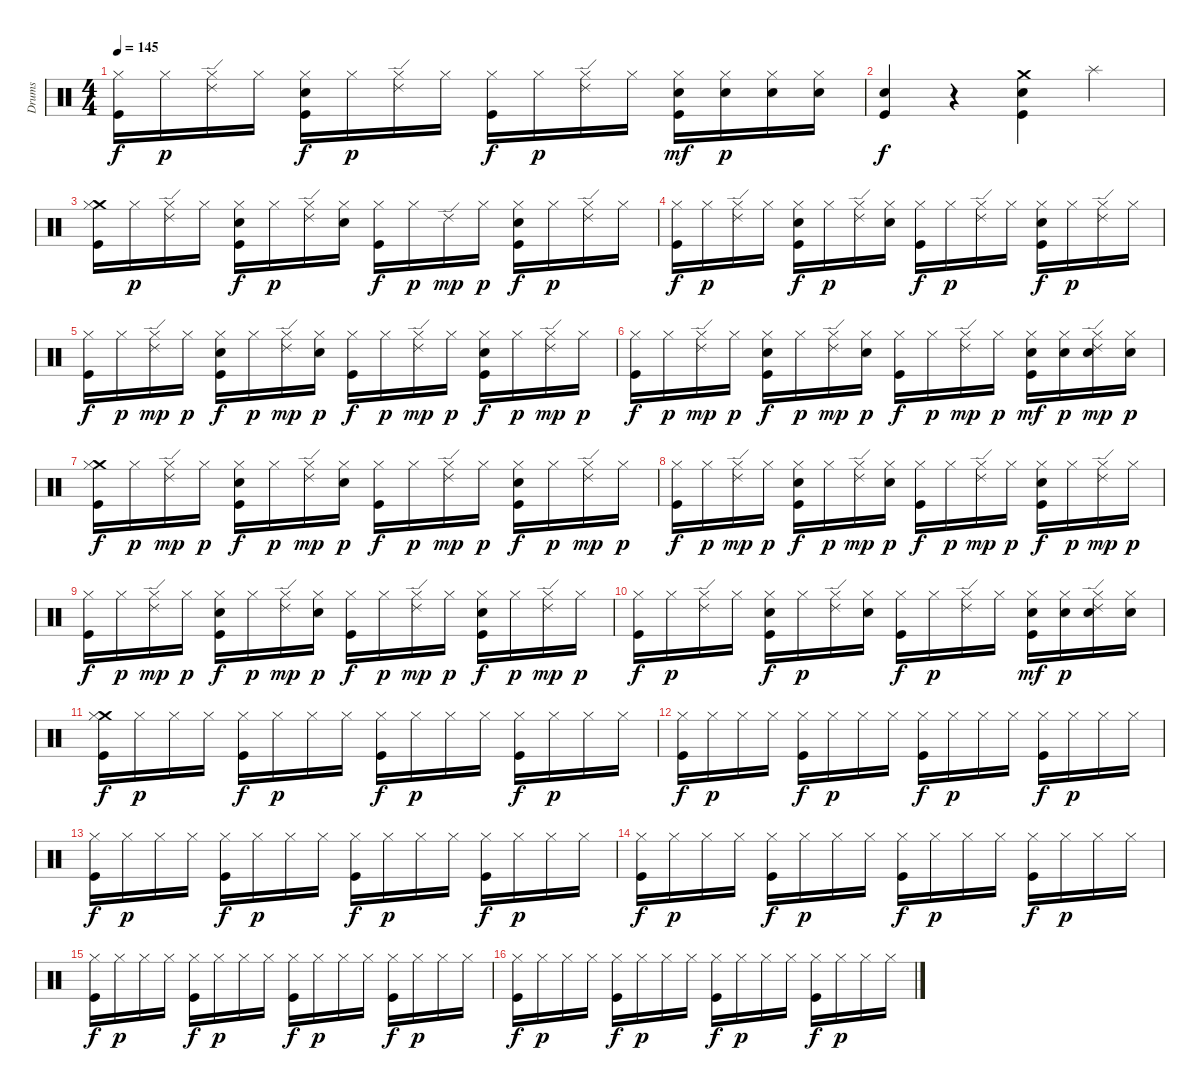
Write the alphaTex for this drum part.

\track ("Drums" "Drums") {instrument percussion}
\staff {score}
\articulation defaults
\ts (4 4)
\tempo 145
\clef neutral
\ks c
("Kick (hit)" "Hi-Hat (closed)").16{dy f} "Hi-Hat (closed)".16{dy p} ("Ride (edge) 2" "Hi-Hat (closed)").16 "Hi-Hat (closed)".16 ("Electric Snare (hit)" "Kick (hit)" "Hi-Hat (closed)").16{dy f} "Hi-Hat (closed)".16{dy p} ("Ride (edge) 2" "Hi-Hat (closed)").16 "Hi-Hat (closed)".16 ("Kick (hit)" "Hi-Hat (closed)").16{dy f} "Hi-Hat (closed)".16{dy p} ("Ride (edge) 2" "Hi-Hat (closed)").16 "Hi-Hat (closed)".16 ("Electric Snare (hit)" "Kick (hit)" "Hi-Hat (closed)").16{dy mf} ("Electric Snare (hit)" "Hi-Hat (closed)").16{dy p} ("Electric Snare (hit)" "Hi-Hat (closed)").16 ("Electric Snare (hit)" "Hi-Hat (closed)").16 |
("Electric Snare (hit)" "Kick (hit)").4{dy f} r.4 ("Crash medium (hit)" "Kick (hit)" "Electric Snare (hit)").4 "Splash (hit)".4 |
("Crash medium (hit)" "Kick (hit)" "Hi-Hat (closed)").16 "Hi-Hat (closed)".16{dy p} ("Ride (edge) 2" "Hi-Hat (closed)").16 "Hi-Hat (closed)".16 ("Electric Snare (hit)" "Kick (hit)" "Hi-Hat (closed)").16{dy f} "Hi-Hat (closed)".16{dy p} ("Ride (edge) 2" "Hi-Hat (closed)").16 ("Electric Snare (hit)" "Hi-Hat (closed)").16 ("Kick (hit)" "Hi-Hat (closed)").16{dy f} "Hi-Hat (closed)".16{dy p} "Ride (edge) 2".16{dy mp} "Hi-Hat (closed)".16{dy p} ("Electric Snare (hit)" "Kick (hit)" "Hi-Hat (closed)").16{dy f} "Hi-Hat (closed)".16{dy p} ("Ride (edge) 2" "Hi-Hat (closed)").16 "Hi-Hat (closed)".16 |
("Kick (hit)" "Hi-Hat (closed)").16{dy f} "Hi-Hat (closed)".16{dy p} ("Ride (edge) 2" "Hi-Hat (closed)").16 "Hi-Hat (closed)".16 ("Electric Snare (hit)" "Kick (hit)" "Hi-Hat (closed)").16{dy f} "Hi-Hat (closed)".16{dy p} ("Ride (edge) 2" "Hi-Hat (closed)").16 ("Electric Snare (hit)" "Hi-Hat (closed)").16 ("Kick (hit)" "Hi-Hat (closed)").16{dy f} "Hi-Hat (closed)".16{dy p} ("Ride (edge) 2" "Hi-Hat (closed)").16 "Hi-Hat (closed)".16 ("Electric Snare (hit)" "Kick (hit)" "Hi-Hat (closed)").16{dy f} "Hi-Hat (closed)".16{dy p} ("Ride (edge) 2" "Hi-Hat (closed)").16 "Hi-Hat (closed)".16 |
("Kick (hit)" "Hi-Hat (closed)").16{dy f} "Hi-Hat (closed)".16{dy p} ("Hi-Hat (closed)" "Ride (edge) 2").16{dy mp} "Hi-Hat (closed)".16{dy p} ("Electric Snare (hit)" "Kick (hit)" "Hi-Hat (closed)").16{dy f} "Hi-Hat (closed)".16{dy p} ("Hi-Hat (closed)" "Ride (edge) 2").16{dy mp} ("Electric Snare (hit)" "Hi-Hat (closed)").16{dy p} ("Kick (hit)" "Hi-Hat (closed)").16{dy f} "Hi-Hat (closed)".16{dy p} ("Hi-Hat (closed)" "Ride (edge) 2").16{dy mp} "Hi-Hat (closed)".16{dy p} ("Electric Snare (hit)" "Kick (hit)" "Hi-Hat (closed)").16{dy f} "Hi-Hat (closed)".16{dy p} ("Hi-Hat (closed)" "Ride (edge) 2").16{dy mp} "Hi-Hat (closed)".16{dy p} |
("Kick (hit)" "Hi-Hat (closed)").16{dy f} "Hi-Hat (closed)".16{dy p} ("Hi-Hat (closed)" "Ride (edge) 2").16{dy mp} "Hi-Hat (closed)".16{dy p} ("Electric Snare (hit)" "Kick (hit)" "Hi-Hat (closed)").16{dy f} "Hi-Hat (closed)".16{dy p} ("Hi-Hat (closed)" "Ride (edge) 2").16{dy mp} ("Electric Snare (hit)" "Hi-Hat (closed)").16{dy p} ("Kick (hit)" "Hi-Hat (closed)").16{dy f} "Hi-Hat (closed)".16{dy p} ("Hi-Hat (closed)" "Ride (edge) 2").16{dy mp} "Hi-Hat (closed)".16{dy p} ("Electric Snare (hit)" "Kick (hit)" "Hi-Hat (closed)").16{dy mf} ("Electric Snare (hit)" "Hi-Hat (closed)").16{dy p} ("Electric Snare (hit)" "Hi-Hat (closed)" "Ride (edge) 2").16{dy mp} ("Electric Snare (hit)" "Hi-Hat (closed)").16{dy p} |
("Crash medium (hit)" "Kick (hit)" "Hi-Hat (closed)").16{dy f} "Hi-Hat (closed)".16{dy p} ("Hi-Hat (closed)" "Ride (edge) 2").16{dy mp} "Hi-Hat (closed)".16{dy p} ("Electric Snare (hit)" "Kick (hit)" "Hi-Hat (closed)").16{dy f} "Hi-Hat (closed)".16{dy p} ("Hi-Hat (closed)" "Ride (edge) 2").16{dy mp} ("Electric Snare (hit)" "Hi-Hat (closed)").16{dy p} ("Kick (hit)" "Hi-Hat (closed)").16{dy f} "Hi-Hat (closed)".16{dy p} ("Hi-Hat (closed)" "Ride (edge) 2").16{dy mp} "Hi-Hat (closed)".16{dy p} ("Electric Snare (hit)" "Kick (hit)" "Hi-Hat (closed)").16{dy f} "Hi-Hat (closed)".16{dy p} ("Hi-Hat (closed)" "Ride (edge) 2").16{dy mp} "Hi-Hat (closed)".16{dy p} |
("Kick (hit)" "Hi-Hat (closed)").16{dy f} "Hi-Hat (closed)".16{dy p} ("Hi-Hat (closed)" "Ride (edge) 2").16{dy mp} "Hi-Hat (closed)".16{dy p} ("Electric Snare (hit)" "Kick (hit)" "Hi-Hat (closed)").16{dy f} "Hi-Hat (closed)".16{dy p} ("Hi-Hat (closed)" "Ride (edge) 2").16{dy mp} ("Electric Snare (hit)" "Hi-Hat (closed)").16{dy p} ("Kick (hit)" "Hi-Hat (closed)").16{dy f} "Hi-Hat (closed)".16{dy p} ("Hi-Hat (closed)" "Ride (edge) 2").16{dy mp} "Hi-Hat (closed)".16{dy p} ("Electric Snare (hit)" "Kick (hit)" "Hi-Hat (closed)").16{dy f} "Hi-Hat (closed)".16{dy p} ("Hi-Hat (closed)" "Ride (edge) 2").16{dy mp} "Hi-Hat (closed)".16{dy p} |
("Kick (hit)" "Hi-Hat (closed)").16{dy f} "Hi-Hat (closed)".16{dy p} ("Hi-Hat (closed)" "Ride (edge) 2").16{dy mp} "Hi-Hat (closed)".16{dy p} ("Electric Snare (hit)" "Kick (hit)" "Hi-Hat (closed)").16{dy f} "Hi-Hat (closed)".16{dy p} ("Hi-Hat (closed)" "Ride (edge) 2").16{dy mp} ("Electric Snare (hit)" "Hi-Hat (closed)").16{dy p} ("Kick (hit)" "Hi-Hat (closed)").16{dy f} "Hi-Hat (closed)".16{dy p} ("Hi-Hat (closed)" "Ride (edge) 2").16{dy mp} "Hi-Hat (closed)".16{dy p} ("Electric Snare (hit)" "Kick (hit)" "Hi-Hat (closed)").16{dy f} "Hi-Hat (closed)".16{dy p} ("Hi-Hat (closed)" "Ride (edge) 2").16{dy mp} "Hi-Hat (closed)".16{dy p} |
("Kick (hit)" "Hi-Hat (closed)").16{dy f} "Hi-Hat (closed)".16{dy p} ("Ride (edge) 2" "Hi-Hat (closed)").16 "Hi-Hat (closed)".16 ("Electric Snare (hit)" "Kick (hit)" "Hi-Hat (closed)").16{dy f} "Hi-Hat (closed)".16{dy p} ("Ride (edge) 2" "Hi-Hat (closed)").16 ("Electric Snare (hit)" "Hi-Hat (closed)").16 ("Kick (hit)" "Hi-Hat (closed)").16{dy f} "Hi-Hat (closed)".16{dy p} ("Ride (edge) 2" "Hi-Hat (closed)").16 "Hi-Hat (closed)".16 ("Electric Snare (hit)" "Kick (hit)" "Hi-Hat (closed)").16{dy mf} ("Electric Snare (hit)" "Hi-Hat (closed)").16{dy p} ("Electric Snare (hit)" "Ride (edge) 2" "Hi-Hat (closed)").16 ("Electric Snare (hit)" "Hi-Hat (closed)").16 |
("Crash medium (hit)" "Kick (hit)" "Hi-Hat (closed)").16{dy f} "Hi-Hat (closed)".16{dy p} "Hi-Hat (closed)".16 "Hi-Hat (closed)".16 ("Kick (hit)" "Hi-Hat (closed)").16{dy f} "Hi-Hat (closed)".16{dy p} "Hi-Hat (closed)".16 "Hi-Hat (closed)".16 ("Kick (hit)" "Hi-Hat (closed)").16{dy f} "Hi-Hat (closed)".16{dy p} "Hi-Hat (closed)".16 "Hi-Hat (closed)".16 ("Kick (hit)" "Hi-Hat (closed)").16{dy f} "Hi-Hat (closed)".16{dy p} "Hi-Hat (closed)".16 "Hi-Hat (closed)".16 |
("Kick (hit)" "Hi-Hat (closed)").16{dy f} "Hi-Hat (closed)".16{dy p} "Hi-Hat (closed)".16 "Hi-Hat (closed)".16 ("Kick (hit)" "Hi-Hat (closed)").16{dy f} "Hi-Hat (closed)".16{dy p} "Hi-Hat (closed)".16 "Hi-Hat (closed)".16 ("Kick (hit)" "Hi-Hat (closed)").16{dy f} "Hi-Hat (closed)".16{dy p} "Hi-Hat (closed)".16 "Hi-Hat (closed)".16 ("Kick (hit)" "Hi-Hat (closed)").16{dy f} "Hi-Hat (closed)".16{dy p} "Hi-Hat (closed)".16 "Hi-Hat (closed)".16 |
("Kick (hit)" "Hi-Hat (closed)").16{dy f} "Hi-Hat (closed)".16{dy p} "Hi-Hat (closed)".16 "Hi-Hat (closed)".16 ("Kick (hit)" "Hi-Hat (closed)").16{dy f} "Hi-Hat (closed)".16{dy p} "Hi-Hat (closed)".16 "Hi-Hat (closed)".16 ("Kick (hit)" "Hi-Hat (closed)").16{dy f} "Hi-Hat (closed)".16{dy p} "Hi-Hat (closed)".16 "Hi-Hat (closed)".16 ("Kick (hit)" "Hi-Hat (closed)").16{dy f} "Hi-Hat (closed)".16{dy p} "Hi-Hat (closed)".16 "Hi-Hat (closed)".16 |
("Kick (hit)" "Hi-Hat (closed)").16{dy f} "Hi-Hat (closed)".16{dy p} "Hi-Hat (closed)".16 "Hi-Hat (closed)".16 ("Kick (hit)" "Hi-Hat (closed)").16{dy f} "Hi-Hat (closed)".16{dy p} "Hi-Hat (closed)".16 "Hi-Hat (closed)".16 ("Kick (hit)" "Hi-Hat (closed)").16{dy f} "Hi-Hat (closed)".16{dy p} "Hi-Hat (closed)".16 "Hi-Hat (closed)".16 ("Kick (hit)" "Hi-Hat (closed)").16{dy f} "Hi-Hat (closed)".16{dy p} "Hi-Hat (closed)".16 "Hi-Hat (closed)".16 |
("Kick (hit)" "Hi-Hat (closed)").16{dy f} "Hi-Hat (closed)".16{dy p} "Hi-Hat (closed)".16 "Hi-Hat (closed)".16 ("Kick (hit)" "Hi-Hat (closed)").16{dy f} "Hi-Hat (closed)".16{dy p} "Hi-Hat (closed)".16 "Hi-Hat (closed)".16 ("Kick (hit)" "Hi-Hat (closed)").16{dy f} "Hi-Hat (closed)".16{dy p} "Hi-Hat (closed)".16 "Hi-Hat (closed)".16 ("Kick (hit)" "Hi-Hat (closed)").16{dy f} "Hi-Hat (closed)".16{dy p} "Hi-Hat (closed)".16 "Hi-Hat (closed)".16 |
("Kick (hit)" "Hi-Hat (closed)").16{dy f} "Hi-Hat (closed)".16{dy p} "Hi-Hat (closed)".16 "Hi-Hat (closed)".16 ("Kick (hit)" "Hi-Hat (closed)").16{dy f} "Hi-Hat (closed)".16{dy p} "Hi-Hat (closed)".16 "Hi-Hat (closed)".16 ("Kick (hit)" "Hi-Hat (closed)").16{dy f} "Hi-Hat (closed)".16{dy p} "Hi-Hat (closed)".16 "Hi-Hat (closed)".16 ("Kick (hit)" "Hi-Hat (closed)").16{dy f} "Hi-Hat (closed)".16{dy p} "Hi-Hat (closed)".16 "Hi-Hat (closed)".16
